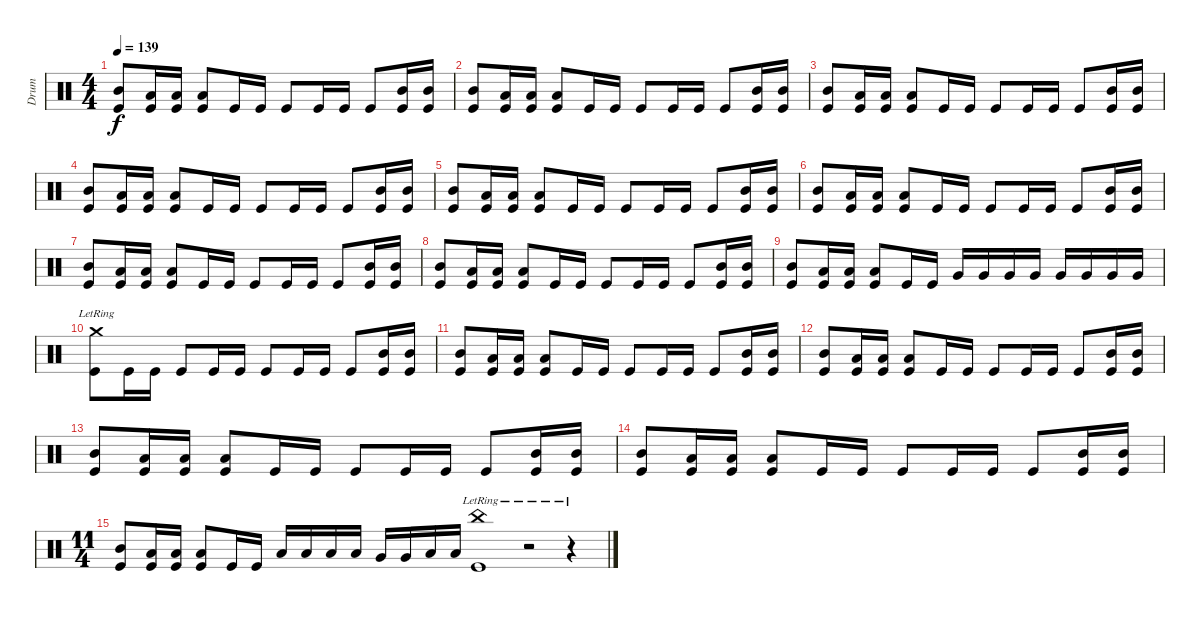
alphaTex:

\track ("Drum" "Drum") {instrument percussion}
\staff {score}
\articulation defaults
\ts (4 4)
\tempo 139
\clef neutral
\ks c
("Mid Tom (hit)" "Kick (hit)").8{dy f} ("Low Floor Tom (hit)" "Kick (hit)").16 ("Low Floor Tom (hit)" "Kick (hit)").16 ("Low Floor Tom (hit)" "Kick (hit)").8 "Kick (hit)".16 "Kick (hit)".16 "Kick (hit)".8 "Kick (hit)".16 "Kick (hit)".16 "Kick (hit)".8 ("Mid Tom (hit)" "Kick (hit)").16 ("Mid Tom (hit)" "Kick (hit)").16 |
("Mid Tom (hit)" "Kick (hit)").8 ("Low Floor Tom (hit)" "Kick (hit)").16 ("Low Floor Tom (hit)" "Kick (hit)").16 ("Low Floor Tom (hit)" "Kick (hit)").8 "Kick (hit)".16 "Kick (hit)".16 "Kick (hit)".8 "Kick (hit)".16 "Kick (hit)".16 "Kick (hit)".8 ("Mid Tom (hit)" "Kick (hit)").16 ("Mid Tom (hit)" "Kick (hit)").16 |
("Mid Tom (hit)" "Kick (hit)").8 ("Low Floor Tom (hit)" "Kick (hit)").16 ("Low Floor Tom (hit)" "Kick (hit)").16 ("Low Floor Tom (hit)" "Kick (hit)").8 "Kick (hit)".16 "Kick (hit)".16 "Kick (hit)".8 "Kick (hit)".16 "Kick (hit)".16 "Kick (hit)".8 ("Mid Tom (hit)" "Kick (hit)").16 ("Mid Tom (hit)" "Kick (hit)").16 |
("Mid Tom (hit)" "Kick (hit)").8 ("Low Floor Tom (hit)" "Kick (hit)").16 ("Low Floor Tom (hit)" "Kick (hit)").16 ("Low Floor Tom (hit)" "Kick (hit)").8 "Kick (hit)".16 "Kick (hit)".16 "Kick (hit)".8 "Kick (hit)".16 "Kick (hit)".16 "Kick (hit)".8 ("Mid Tom (hit)" "Kick (hit)").16 ("Mid Tom (hit)" "Kick (hit)").16 |
("Mid Tom (hit)" "Kick (hit)").8 ("Low Floor Tom (hit)" "Kick (hit)").16 ("Low Floor Tom (hit)" "Kick (hit)").16 ("Low Floor Tom (hit)" "Kick (hit)").8 "Kick (hit)".16 "Kick (hit)".16 "Kick (hit)".8 "Kick (hit)".16 "Kick (hit)".16 "Kick (hit)".8 ("Mid Tom (hit)" "Kick (hit)").16 ("Mid Tom (hit)" "Kick (hit)").16 |
("Mid Tom (hit)" "Kick (hit)").8 ("Low Floor Tom (hit)" "Kick (hit)").16 ("Low Floor Tom (hit)" "Kick (hit)").16 ("Low Floor Tom (hit)" "Kick (hit)").8 "Kick (hit)".16 "Kick (hit)".16 "Kick (hit)".8 "Kick (hit)".16 "Kick (hit)".16 "Kick (hit)".8 ("Mid Tom (hit)" "Kick (hit)").16 ("Mid Tom (hit)" "Kick (hit)").16 |
("Mid Tom (hit)" "Kick (hit)").8 ("Low Floor Tom (hit)" "Kick (hit)").16 ("Low Floor Tom (hit)" "Kick (hit)").16 ("Low Floor Tom (hit)" "Kick (hit)").8 "Kick (hit)".16 "Kick (hit)".16 "Kick (hit)".8 "Kick (hit)".16 "Kick (hit)".16 "Kick (hit)".8 ("Mid Tom (hit)" "Kick (hit)").16 ("Mid Tom (hit)" "Kick (hit)").16 |
("Mid Tom (hit)" "Kick (hit)").8 ("Low Floor Tom (hit)" "Kick (hit)").16 ("Low Floor Tom (hit)" "Kick (hit)").16 ("Low Floor Tom (hit)" "Kick (hit)").8 "Kick (hit)".16 "Kick (hit)".16 "Kick (hit)".8 "Kick (hit)".16 "Kick (hit)".16 "Kick (hit)".8 ("Mid Tom (hit)" "Kick (hit)").16 ("Mid Tom (hit)" "Kick (hit)").16 |
("Mid Tom (hit)" "Kick (hit)").8 ("Low Floor Tom (hit)" "Kick (hit)").16 ("Low Floor Tom (hit)" "Kick (hit)").16 ("Low Floor Tom (hit)" "Kick (hit)").8 "Kick (hit)".16 "Kick (hit)".16 "Very Low Tom (hit)".16 "Very Low Tom (hit)".16 "Very Low Tom (hit)".16 "Very Low Tom (hit)".16 "Very Low Tom (hit)".16 "Very Low Tom (hit)".16 "Very Low Tom (hit)".16 "Very Low Tom (hit)".16 |
("Crash medium (hit)"{lr} "Kick (hit)").8 "Kick (hit)".16 "Kick (hit)".16 "Kick (hit)".8 "Kick (hit)".16 "Kick (hit)".16 "Kick (hit)".8 "Kick (hit)".16 "Kick (hit)".16 "Kick (hit)".8 ("Mid Tom (hit)" "Kick (hit)").16 ("Mid Tom (hit)" "Kick (hit)").16 |
("Mid Tom (hit)" "Kick (hit)").8 ("Low Floor Tom (hit)" "Kick (hit)").16 ("Low Floor Tom (hit)" "Kick (hit)").16 ("Low Floor Tom (hit)" "Kick (hit)").8 "Kick (hit)".16 "Kick (hit)".16 "Kick (hit)".8 "Kick (hit)".16 "Kick (hit)".16 "Kick (hit)".8 ("Mid Tom (hit)" "Kick (hit)").16 ("Mid Tom (hit)" "Kick (hit)").16 |
("Mid Tom (hit)" "Kick (hit)").8 ("Low Floor Tom (hit)" "Kick (hit)").16 ("Low Floor Tom (hit)" "Kick (hit)").16 ("Low Floor Tom (hit)" "Kick (hit)").8 "Kick (hit)".16 "Kick (hit)".16 "Kick (hit)".8 "Kick (hit)".16 "Kick (hit)".16 "Kick (hit)".8 ("Mid Tom (hit)" "Kick (hit)").16 ("Mid Tom (hit)" "Kick (hit)").16 |
("Mid Tom (hit)" "Kick (hit)").8 ("Low Floor Tom (hit)" "Kick (hit)").16 ("Low Floor Tom (hit)" "Kick (hit)").16 ("Low Floor Tom (hit)" "Kick (hit)").8 "Kick (hit)".16 "Kick (hit)".16 "Kick (hit)".8 "Kick (hit)".16 "Kick (hit)".16 "Kick (hit)".8 ("Mid Tom (hit)" "Kick (hit)").16 ("Mid Tom (hit)" "Kick (hit)").16 |
("Mid Tom (hit)" "Kick (hit)").8 ("Low Floor Tom (hit)" "Kick (hit)").16 ("Low Floor Tom (hit)" "Kick (hit)").16 ("Low Floor Tom (hit)" "Kick (hit)").8 "Kick (hit)".16 "Kick (hit)".16 "Kick (hit)".8 "Kick (hit)".16 "Kick (hit)".16 "Kick (hit)".8 ("Mid Tom (hit)" "Kick (hit)").16 ("Mid Tom (hit)" "Kick (hit)").16 |
\ts (11 4)
("Mid Tom (hit)" "Kick (hit)").8 ("Low Floor Tom (hit)" "Kick (hit)").16 ("Low Floor Tom (hit)" "Kick (hit)").16 ("Low Floor Tom (hit)" "Kick (hit)").8 "Kick (hit)".16 "Kick (hit)".16 "Low Tom (hit)".16 "Low Tom (hit)".16 "Low Tom (hit)".16 "Low Tom (hit)".16 "Very Low Tom (hit)".16 "Very Low Tom (hit)".16 "Low Floor Tom (hit)".16 "Low Floor Tom (hit)".16 ("China (hit)"{lr} "Kick (hit)").1 r.2 r.4
